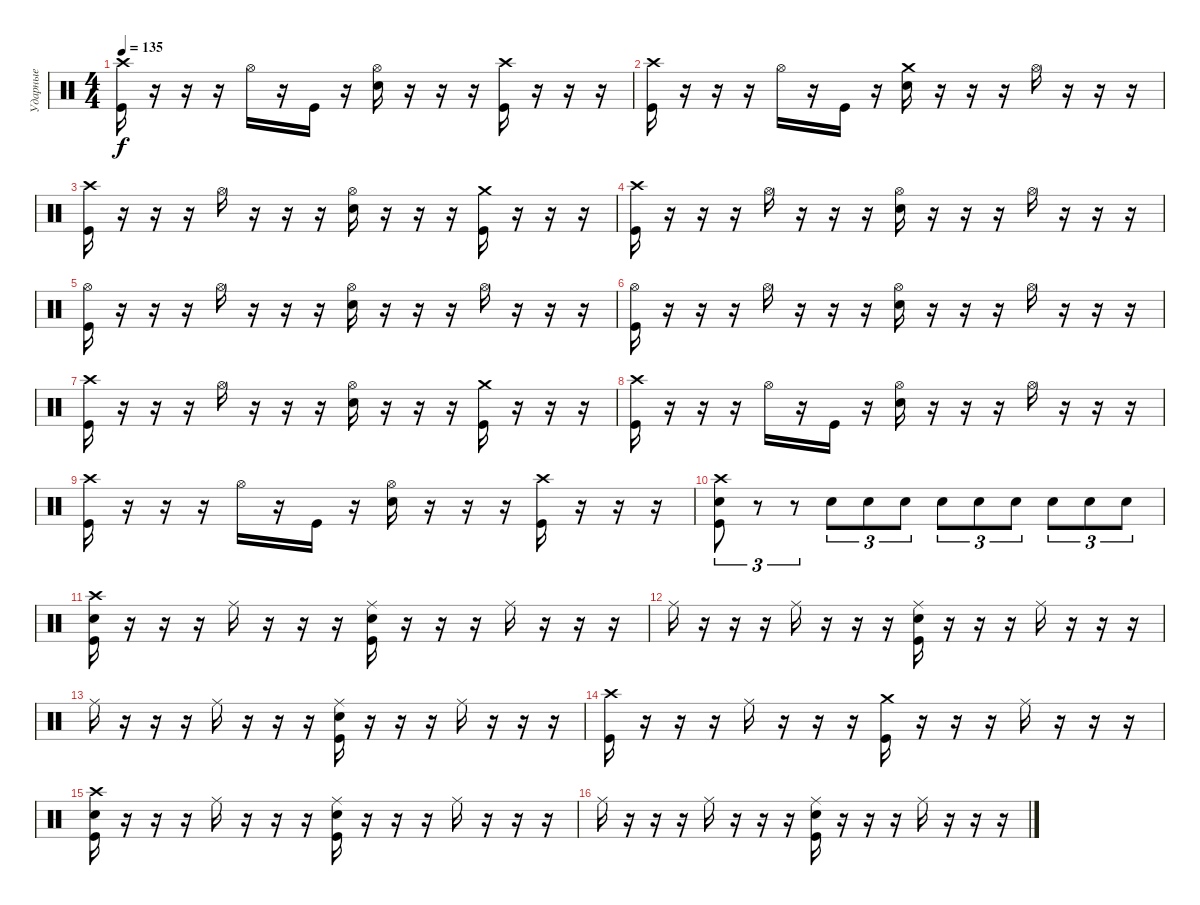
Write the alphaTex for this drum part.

\track ("Ударные" "Ударные") {instrument percussion}
\staff {score}
\articulation defaults
\ts (4 4)
\tempo 135
\clef neutral
\ks c
("Crash high (hit)" "Kick (hit)").16{dy f} r.16 r.16 r.16 "Hi-Hat (open)".16 r.16 "Kick (hit)".16 r.16 ("Hi-Hat (open)" "Electric Snare (hit)").16 r.16 r.16 r.16 ("Crash high (hit)" "Kick (hit)").16 r.16 r.16 r.16 |
("Crash high (hit)" "Kick (hit)").16 r.16 r.16 r.16 "Hi-Hat (open)".16 r.16 "Kick (hit)".16 r.16 ("Crash medium (hit)" "Electric Snare (hit)").16 r.16 r.16 r.16 "Hi-Hat (open)".16 r.16 r.16 r.16 |
("Crash high (hit)" "Kick (hit)").16 r.16 r.16 r.16 "Hi-Hat (open)".16 r.16 r.16 r.16 ("Hi-Hat (open)" "Electric Snare (hit)").16 r.16 r.16 r.16 ("Crash medium (hit)" "Kick (hit)").16 r.16 r.16 r.16 |
("Crash high (hit)" "Kick (hit)").16 r.16 r.16 r.16 "Hi-Hat (open)".16 r.16 r.16 r.16 ("Hi-Hat (open)" "Electric Snare (hit)").16 r.16 r.16 r.16 "Hi-Hat (open)".16 r.16 r.16 r.16 |
("Hi-Hat (open)" "Kick (hit)").16 r.16 r.16 r.16 "Hi-Hat (open)".16 r.16 r.16 r.16 ("Hi-Hat (open)" "Electric Snare (hit)").16 r.16 r.16 r.16 "Hi-Hat (open)".16 r.16 r.16 r.16 |
("Hi-Hat (open)" "Kick (hit)").16 r.16 r.16 r.16 "Hi-Hat (open)".16 r.16 r.16 r.16 ("Hi-Hat (open)" "Electric Snare (hit)").16 r.16 r.16 r.16 "Hi-Hat (open)".16 r.16 r.16 r.16 |
("Crash high (hit)" "Kick (hit)").16 r.16 r.16 r.16 "Hi-Hat (open)".16 r.16 r.16 r.16 ("Hi-Hat (open)" "Electric Snare (hit)").16 r.16 r.16 r.16 ("Crash medium (hit)" "Kick (hit)").16 r.16 r.16 r.16 |
("Crash high (hit)" "Kick (hit)").16 r.16 r.16 r.16 "Hi-Hat (open)".16 r.16 "Kick (hit)".16 r.16 ("Hi-Hat (open)" "Electric Snare (hit)").16 r.16 r.16 r.16 "Hi-Hat (open)".16 r.16 r.16 r.16 |
("Crash high (hit)" "Kick (hit)").16 r.16 r.16 r.16 "Hi-Hat (open)".16 r.16 "Kick (hit)".16 r.16 ("Hi-Hat (open)" "Electric Snare (hit)").16 r.16 r.16 r.16 ("Crash high (hit)" "Kick (hit)").16 r.16 r.16 r.16 |
("Crash high (hit)" "Electric Snare (hit)" "Kick (hit)").8{tu (3 2)} r.8{tu (3 2)} r.8{tu (3 2)} "Electric Snare (hit)".8{tu (3 2)} "Electric Snare (hit)".8{tu (3 2)} "Electric Snare (hit)".8{tu (3 2)} "Electric Snare (hit)".8{tu (3 2)} "Electric Snare (hit)".8{tu (3 2)} "Electric Snare (hit)".8{tu (3 2)} "Electric Snare (hit)".8{tu (3 2)} "Electric Snare (hit)".8{tu (3 2)} "Electric Snare (hit)".8{tu (3 2)} |
("Kick (hit)" "Crash high (hit)" "Electric Snare (hit)").16 r.16 r.16 r.16 "Ride (middle)".16 r.16 r.16 r.16 ("Ride (middle)" "Electric Snare (hit)" "Kick (hit)").16 r.16 r.16 r.16 "Ride (middle)".16 r.16 r.16 r.16 |
"Ride (middle)".16 r.16 r.16 r.16 "Ride (middle)".16 r.16 r.16 r.16 ("Ride (middle)" "Electric Snare (hit)" "Kick (hit)").16 r.16 r.16 r.16 "Ride (middle)".16 r.16 r.16 r.16 |
"Ride (middle)".16 r.16 r.16 r.16 "Ride (middle)".16 r.16 r.16 r.16 ("Ride (middle)" "Electric Snare (hit)" "Kick (hit)").16 r.16 r.16 r.16 "Ride (middle)".16 r.16 r.16 r.16 |
("Crash high (hit)" "Kick (hit)").16 r.16 r.16 r.16 "Ride (middle)".16 r.16 r.16 r.16 ("Crash medium (hit)" "Kick (hit)").16 r.16 r.16 r.16 "Ride (middle)".16 r.16 r.16 r.16 |
("Kick (hit)" "Crash high (hit)" "Electric Snare (hit)").16 r.16 r.16 r.16 "Ride (middle)".16 r.16 r.16 r.16 ("Ride (middle)" "Electric Snare (hit)" "Kick (hit)").16 r.16 r.16 r.16 "Ride (middle)".16 r.16 r.16 r.16 |
"Ride (middle)".16 r.16 r.16 r.16 "Ride (middle)".16 r.16 r.16 r.16 ("Ride (middle)" "Electric Snare (hit)" "Kick (hit)").16 r.16 r.16 r.16 "Ride (middle)".16 r.16 r.16 r.16
